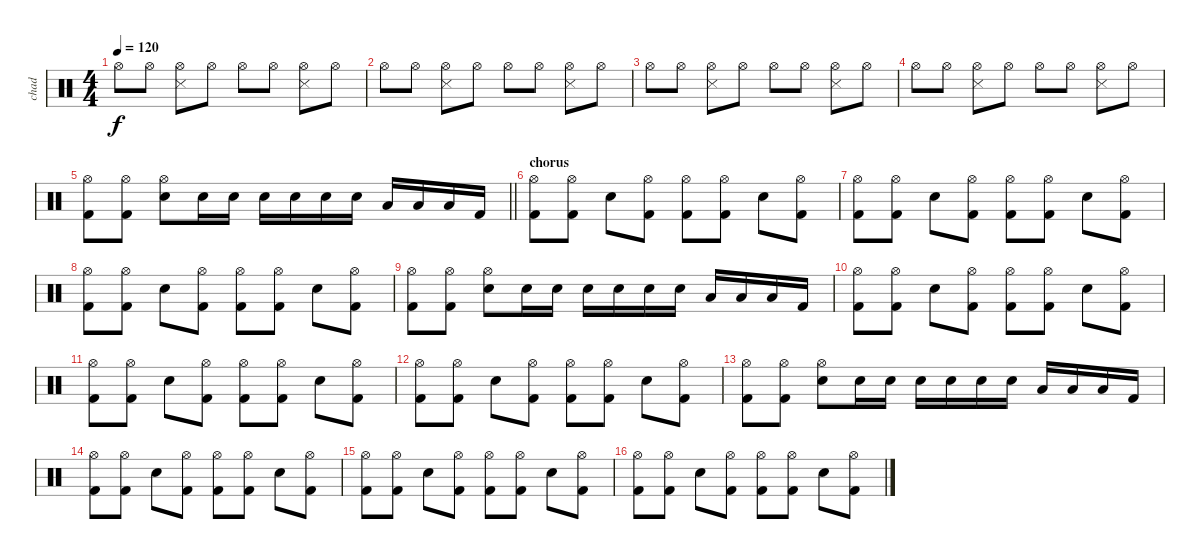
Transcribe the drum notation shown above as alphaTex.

\track ("chad" "chad") {instrument percussion}
\staff {score}
\articulation defaults
\ts (4 4)
\tempo 120
\clef neutral
\ks c "Hi-Hat (open)".8{dy f} "Hi-Hat (open)".8
("Hi-Hat (open)" "Snare (side stick) 3").8 "Hi-Hat (open)".8 "Hi-Hat (open)".8 "Hi-Hat (open)".8 ("Hi-Hat (open)" "Snare (side stick) 3").8 "Hi-Hat (open)".8 |
"Hi-Hat (open)".8 "Hi-Hat (open)".8 ("Hi-Hat (open)" "Snare (side stick) 3").8 "Hi-Hat (open)".8 "Hi-Hat (open)".8 "Hi-Hat (open)".8 ("Hi-Hat (open)" "Snare (side stick) 3").8 "Hi-Hat (open)".8 |
"Hi-Hat (open)".8 "Hi-Hat (open)".8 ("Hi-Hat (open)" "Snare (side stick) 3").8 "Hi-Hat (open)".8 "Hi-Hat (open)".8 "Hi-Hat (open)".8 ("Hi-Hat (open)" "Snare (side stick) 3").8 "Hi-Hat (open)".8 |
"Hi-Hat (open)".8 "Hi-Hat (open)".8 ("Hi-Hat (open)" "Snare (side stick) 3").8 "Hi-Hat (open)".8 "Hi-Hat (open)".8 "Hi-Hat (open)".8 ("Hi-Hat (open)" "Snare (side stick) 3").8 "Hi-Hat (open)".8 |
\barLineRight lightlight
("Hi-Hat (open)" "Kick (hit) 2").8 ("Hi-Hat (open)" "Kick (hit) 2").8 ("Hi-Hat (open)" "Electric Snare (hit)").8 "Snare (hit) 2".16 "Snare (hit) 2".16 "Snare (hit) 2".16 "Electric Snare (hit)".16 "Electric Snare (hit)".16 "Electric Snare (hit)".16 "Low Tom (hit)".16 "Low Tom (hit)".16 "Low Tom (hit)".16 "Kick (hit) 2".16 |
\section ("" "chorus")
("Hi-Hat (open)" "Kick (hit) 2").8 ("Hi-Hat (open)" "Kick (hit) 2").8 "Electric Snare (hit)".8 ("Hi-Hat (open)" "Kick (hit) 2").8 ("Hi-Hat (open)" "Kick (hit) 2").8 ("Hi-Hat (open)" "Kick (hit) 2").8 "Electric Snare (hit)".8 ("Hi-Hat (open)" "Kick (hit) 2").8 |
("Hi-Hat (open)" "Kick (hit) 2").8 ("Hi-Hat (open)" "Kick (hit) 2").8 "Electric Snare (hit)".8 ("Hi-Hat (open)" "Kick (hit) 2").8 ("Hi-Hat (open)" "Kick (hit) 2").8 ("Hi-Hat (open)" "Kick (hit) 2").8 "Electric Snare (hit)".8 ("Hi-Hat (open)" "Kick (hit) 2").8 |
("Hi-Hat (open)" "Kick (hit) 2").8 ("Hi-Hat (open)" "Kick (hit) 2").8 "Electric Snare (hit)".8 ("Hi-Hat (open)" "Kick (hit) 2").8 ("Hi-Hat (open)" "Kick (hit) 2").8 ("Hi-Hat (open)" "Kick (hit) 2").8 "Electric Snare (hit)".8 ("Hi-Hat (open)" "Kick (hit) 2").8 |
("Hi-Hat (open)" "Kick (hit) 2").8 ("Hi-Hat (open)" "Kick (hit) 2").8 ("Hi-Hat (open)" "Electric Snare (hit)").8 "Snare (hit) 2".16 "Snare (hit) 2".16 "Snare (hit) 2".16 "Electric Snare (hit)".16 "Electric Snare (hit)".16 "Electric Snare (hit)".16 "Low Tom (hit)".16 "Low Tom (hit)".16 "Low Tom (hit)".16 "Kick (hit) 2".16 |
("Hi-Hat (open)" "Kick (hit) 2").8 ("Hi-Hat (open)" "Kick (hit) 2").8 "Electric Snare (hit)".8 ("Hi-Hat (open)" "Kick (hit) 2").8 ("Hi-Hat (open)" "Kick (hit) 2").8 ("Hi-Hat (open)" "Kick (hit) 2").8 "Electric Snare (hit)".8 ("Hi-Hat (open)" "Kick (hit) 2").8 |
("Hi-Hat (open)" "Kick (hit) 2").8 ("Hi-Hat (open)" "Kick (hit) 2").8 "Electric Snare (hit)".8 ("Hi-Hat (open)" "Kick (hit) 2").8 ("Hi-Hat (open)" "Kick (hit) 2").8 ("Hi-Hat (open)" "Kick (hit) 2").8 "Electric Snare (hit)".8 ("Hi-Hat (open)" "Kick (hit) 2").8 |
("Hi-Hat (open)" "Kick (hit) 2").8 ("Hi-Hat (open)" "Kick (hit) 2").8 "Electric Snare (hit)".8 ("Hi-Hat (open)" "Kick (hit) 2").8 ("Hi-Hat (open)" "Kick (hit) 2").8 ("Hi-Hat (open)" "Kick (hit) 2").8 "Electric Snare (hit)".8 ("Hi-Hat (open)" "Kick (hit) 2").8 |
("Hi-Hat (open)" "Kick (hit) 2").8 ("Hi-Hat (open)" "Kick (hit) 2").8 ("Hi-Hat (open)" "Electric Snare (hit)").8 "Snare (hit) 2".16 "Snare (hit) 2".16 "Snare (hit) 2".16 "Electric Snare (hit)".16 "Electric Snare (hit)".16 "Electric Snare (hit)".16 "Low Tom (hit)".16 "Low Tom (hit)".16 "Low Tom (hit)".16 "Kick (hit) 2".16 |
("Hi-Hat (open)" "Kick (hit) 2").8 ("Hi-Hat (open)" "Kick (hit) 2").8 "Electric Snare (hit)".8 ("Hi-Hat (open)" "Kick (hit) 2").8 ("Hi-Hat (open)" "Kick (hit) 2").8 ("Hi-Hat (open)" "Kick (hit) 2").8 "Electric Snare (hit)".8 ("Hi-Hat (open)" "Kick (hit) 2").8 |
("Hi-Hat (open)" "Kick (hit) 2").8 ("Hi-Hat (open)" "Kick (hit) 2").8 "Electric Snare (hit)".8 ("Hi-Hat (open)" "Kick (hit) 2").8 ("Hi-Hat (open)" "Kick (hit) 2").8 ("Hi-Hat (open)" "Kick (hit) 2").8 "Electric Snare (hit)".8 ("Hi-Hat (open)" "Kick (hit) 2").8 |
("Hi-Hat (open)" "Kick (hit) 2").8 ("Hi-Hat (open)" "Kick (hit) 2").8 "Electric Snare (hit)".8 ("Hi-Hat (open)" "Kick (hit) 2").8 ("Hi-Hat (open)" "Kick (hit) 2").8 ("Hi-Hat (open)" "Kick (hit) 2").8 "Electric Snare (hit)".8 ("Hi-Hat (open)" "Kick (hit) 2").8
